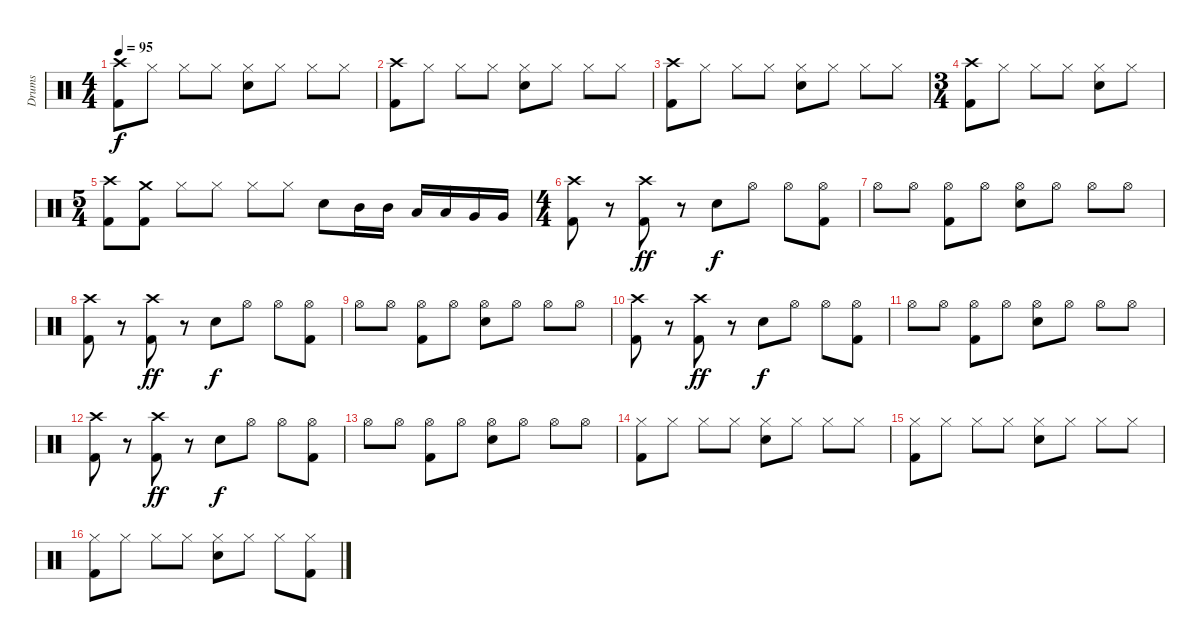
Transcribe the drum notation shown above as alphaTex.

\track ("Drums" "Drums") {instrument percussion}
\staff {score}
\articulation defaults
\ts (4 4)
\tempo 95
\clef neutral
\ks c
("Crash high (hit)" "Kick (hit) 2").8{dy f} "Hi-Hat (closed)".8 "Hi-Hat (closed)".8 "Hi-Hat (closed)".8 ("Snare (hit) 2" "Hi-Hat (closed)").8 "Hi-Hat (closed)".8 "Hi-Hat (closed)".8 "Hi-Hat (closed)".8 |
("Crash high (hit)" "Kick (hit) 2").8 "Hi-Hat (closed)".8 "Hi-Hat (closed)".8 "Hi-Hat (closed)".8 ("Snare (hit) 2" "Hi-Hat (closed)").8 "Hi-Hat (closed)".8 "Hi-Hat (closed)".8 "Hi-Hat (closed)".8 |
("Crash high (hit)" "Kick (hit) 2").8 "Hi-Hat (closed)".8 "Hi-Hat (closed)".8 "Hi-Hat (closed)".8 ("Snare (hit) 2" "Hi-Hat (closed)").8 "Hi-Hat (closed)".8 "Hi-Hat (closed)".8 "Hi-Hat (closed)".8 |
\ts (3 4)
("Crash high (hit)" "Kick (hit) 2").8 "Hi-Hat (closed)".8 "Hi-Hat (closed)".8 "Hi-Hat (closed)".8 ("Snare (hit) 2" "Hi-Hat (closed)").8 "Hi-Hat (closed)".8 |
\ts (5 4)
("Crash high (hit)" "Kick (hit) 2").8 ("Crash medium (hit)" "Kick (hit) 2").8 "Hi-Hat (closed)".8 "Hi-Hat (closed)".8 "Hi-Hat (closed)".8 "Hi-Hat (closed)".8 "Snare (hit) 2".8 "Mid Tom (hit)".16 "Mid Tom (hit)".16 "Low Tom (hit)".16 "Low Tom (hit)".16 "Very Low Tom (hit)".16 "Very Low Tom (hit)".16 |
\ts (4 4)
("Crash high (hit)" "Kick (hit) 2").8 r.8 ("Crash high (hit)" "Kick (hit) 2").8{dy ff} r.8 "Snare (hit) 2".8{dy f} "Hi-Hat (open)".8 "Hi-Hat (open)".8 ("Hi-Hat (open)" "Kick (hit) 2").8 |
"Hi-Hat (open)".8 "Hi-Hat (open)".8 ("Hi-Hat (open)" "Kick (hit) 2").8 "Hi-Hat (open)".8 ("Snare (hit) 2" "Hi-Hat (open)").8 "Hi-Hat (open)".8 "Hi-Hat (open)".8 "Hi-Hat (open)".8 |
("Crash high (hit)" "Kick (hit) 2").8 r.8 ("Crash high (hit)" "Kick (hit) 2").8{dy ff} r.8 "Snare (hit) 2".8{dy f} "Hi-Hat (open)".8 "Hi-Hat (open)".8 ("Hi-Hat (open)" "Kick (hit) 2").8 |
"Hi-Hat (open)".8 "Hi-Hat (open)".8 ("Hi-Hat (open)" "Kick (hit) 2").8 "Hi-Hat (open)".8 ("Snare (hit) 2" "Hi-Hat (open)").8 "Hi-Hat (open)".8 "Hi-Hat (open)".8 "Hi-Hat (open)".8 |
("Crash high (hit)" "Kick (hit) 2").8 r.8 ("Crash high (hit)" "Kick (hit) 2").8{dy ff} r.8 "Snare (hit) 2".8{dy f} "Hi-Hat (open)".8 "Hi-Hat (open)".8 ("Hi-Hat (open)" "Kick (hit) 2").8 |
"Hi-Hat (open)".8 "Hi-Hat (open)".8 ("Hi-Hat (open)" "Kick (hit) 2").8 "Hi-Hat (open)".8 ("Snare (hit) 2" "Hi-Hat (open)").8 "Hi-Hat (open)".8 "Hi-Hat (open)".8 "Hi-Hat (open)".8 |
("Crash high (hit)" "Kick (hit) 2").8 r.8 ("Crash high (hit)" "Kick (hit) 2").8{dy ff} r.8 "Snare (hit) 2".8{dy f} "Hi-Hat (open)".8 "Hi-Hat (open)".8 ("Hi-Hat (open)" "Kick (hit) 2").8 |
"Hi-Hat (open)".8 "Hi-Hat (open)".8 ("Hi-Hat (open)" "Kick (hit) 2").8 "Hi-Hat (open)".8 ("Snare (hit) 2" "Hi-Hat (open)").8 "Hi-Hat (open)".8 "Hi-Hat (open)".8 "Hi-Hat (open)".8 |
("Hi-Hat (closed)" "Kick (hit) 2").8 "Hi-Hat (closed)".8 "Hi-Hat (closed)".8 "Hi-Hat (closed)".8 ("Snare (hit) 2" "Hi-Hat (closed)").8 "Hi-Hat (closed)".8 "Hi-Hat (closed)".8 "Hi-Hat (closed)".8 |
("Hi-Hat (closed)" "Kick (hit) 2").8 "Hi-Hat (closed)".8 "Hi-Hat (closed)".8 "Hi-Hat (closed)".8 ("Snare (hit) 2" "Hi-Hat (closed)").8 "Hi-Hat (closed)".8 "Hi-Hat (closed)".8 "Hi-Hat (closed)".8 |
("Hi-Hat (closed)" "Kick (hit) 2").8 "Hi-Hat (closed)".8 "Hi-Hat (closed)".8 "Hi-Hat (closed)".8 ("Snare (hit) 2" "Hi-Hat (closed)").8 "Hi-Hat (closed)".8 "Hi-Hat (closed)".8 ("Hi-Hat (closed)" "Kick (hit) 2").8
